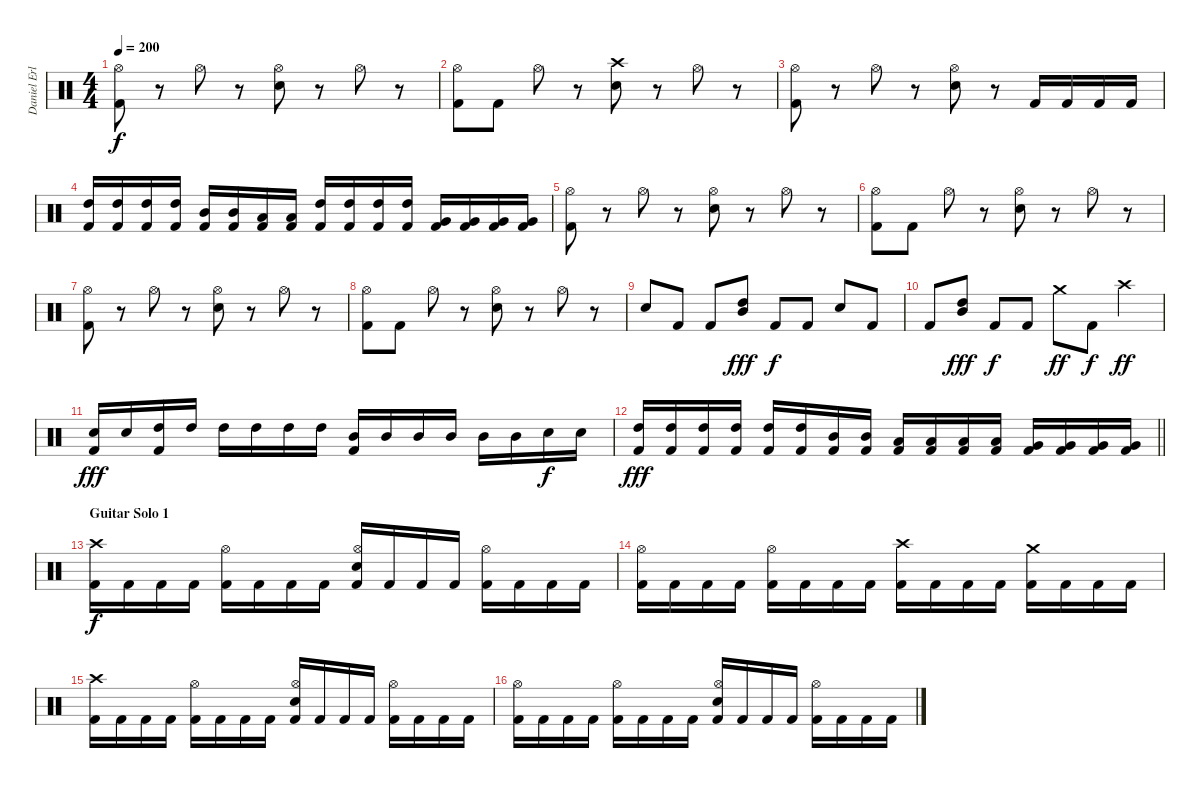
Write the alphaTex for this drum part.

\track ("Daniel Erlandsson" "Daniel Erl") {instrument percussion}
\staff {score}
\articulation defaults
\ts (4 4)
\tempo 200
\clef neutral
\ks c
("Kick (hit) 2" "Hi-Hat (open)").8{dy f} r.8 "Hi-Hat (open)".8 r.8 ("Snare (hit) 2" "Hi-Hat (open)").8 r.8 "Hi-Hat (open)".8 r.8 |
("Kick (hit) 2" "Hi-Hat (open)").8 "Kick (hit) 2".8 "Hi-Hat (open)".8 r.8 ("Snare (hit) 2" "Crash high (hit)").8 r.8 "Hi-Hat (open)".8 r.8 |
("Kick (hit) 2" "Hi-Hat (open)").8 r.8 "Hi-Hat (open)".8 r.8 ("Snare (hit) 2" "Hi-Hat (open)").8 r.8 "Kick (hit) 2".16 "Kick (hit) 2".16 "Kick (hit) 2".16 "Kick (hit) 2".16 |
("Kick (hit) 2" "High Tom (hit)").16 ("Kick (hit) 2" "High Tom (hit)").16 ("Kick (hit) 2" "High Tom (hit)").16 ("Kick (hit) 2" "High Tom (hit)").16 ("Kick (hit) 2" "Mid Tom (hit)").16 ("Kick (hit) 2" "Mid Tom (hit)").16 ("Kick (hit) 2" "Low Tom (hit)").16 ("Kick (hit) 2" "Low Tom (hit)").16 ("Kick (hit) 2" "High Tom (hit)").16 ("Kick (hit) 2" "High Tom (hit)").16 ("Kick (hit) 2" "High Tom (hit)").16 ("Kick (hit) 2" "High Tom (hit)").16 ("Kick (hit) 2" "Very Low Tom (hit)").16 ("Kick (hit) 2" "Very Low Tom (hit)").16 ("Kick (hit) 2" "Very Low Tom (hit)").16 ("Kick (hit) 2" "Very Low Tom (hit)").16 |
("Kick (hit) 2" "Hi-Hat (open)").8 r.8 "Hi-Hat (open)".8 r.8 ("Snare (hit) 2" "Hi-Hat (open)").8 r.8 "Hi-Hat (open)".8 r.8 |
("Kick (hit) 2" "Hi-Hat (open)").8 "Kick (hit) 2".8 "Hi-Hat (open)".8 r.8 ("Snare (hit) 2" "Hi-Hat (open)").8 r.8 "Hi-Hat (open)".8 r.8 |
("Kick (hit) 2" "Hi-Hat (open)").8 r.8 "Hi-Hat (open)".8 r.8 ("Snare (hit) 2" "Hi-Hat (open)").8 r.8 "Hi-Hat (open)".8 r.8 |
("Kick (hit) 2" "Hi-Hat (open)").8 "Kick (hit) 2".8 "Hi-Hat (open)".8 r.8 ("Snare (hit) 2" "Hi-Hat (open)").8 r.8 "Hi-Hat (open)".8 r.8 |
"Snare (hit) 2".8 "Kick (hit) 2".8 "Kick (hit) 2".8 ("High Tom (hit)" "Mid Tom (hit)").8{dy fff} "Kick (hit) 2".8{dy f} "Kick (hit) 2".8 "Snare (hit) 2".8 "Kick (hit) 2".8 |
"Kick (hit) 2".8 ("High Tom (hit)" "Mid Tom (hit)").8{dy fff} "Kick (hit) 2".8{dy f} "Kick (hit) 2".8 "Crash medium (hit)".8{dy ff} "Kick (hit) 2".8{dy f} "Crash high (hit)".4{dy ff} |
("Kick (hit) 2" "Snare (hit) 2").16{dy fff} "Snare (hit) 2".16 ("Kick (hit) 2" "High Tom (hit)").16 "High Tom (hit)".16 "High Tom (hit)".16 "High Tom (hit)".16 "High Tom (hit)".16 "High Tom (hit)".16 ("Kick (hit) 2" "Mid Tom (hit)").16 "Mid Tom (hit)".16 "Mid Tom (hit)".16 "Mid Tom (hit)".16 "Mid Tom (hit)".16 "Mid Tom (hit)".16 "Snare (hit) 2".16{dy f} "Snare (hit) 2".16 |
\barLineRight lightlight
("Kick (hit) 2" "High Tom (hit)").16{dy fff} ("Kick (hit) 2" "High Tom (hit)").16 ("Kick (hit) 2" "High Tom (hit)").16 ("Kick (hit) 2" "High Tom (hit)").16 ("Kick (hit) 2" "High Tom (hit)").16 ("Kick (hit) 2" "High Tom (hit)").16 ("Kick (hit) 2" "Mid Tom (hit)").16 ("Kick (hit) 2" "Mid Tom (hit)").16 ("Kick (hit) 2" "Low Tom (hit)").16 ("Kick (hit) 2" "Low Tom (hit)").16 ("Kick (hit) 2" "Low Tom (hit)").16 ("Kick (hit) 2" "Low Tom (hit)").16 ("Kick (hit) 2" "Very Low Tom (hit)").16 ("Kick (hit) 2" "Very Low Tom (hit)").16 ("Kick (hit) 2" "Very Low Tom (hit)").16 ("Kick (hit) 2" "Very Low Tom (hit)").16 |
\section ("" "Guitar Solo 1")
("Kick (hit) 2" "Crash high (hit)").16{dy f} "Kick (hit) 2".16 "Kick (hit) 2".16 "Kick (hit) 2".16 ("Kick (hit) 2" "Hi-Hat (open)").16 "Kick (hit) 2".16 "Kick (hit) 2".16 "Kick (hit) 2".16 ("Kick (hit) 2" "Snare (hit) 2" "Hi-Hat (open)").16 "Kick (hit) 2".16 "Kick (hit) 2".16 "Kick (hit) 2".16 ("Kick (hit) 2" "Hi-Hat (open)").16 "Kick (hit) 2".16 "Kick (hit) 2".16 "Kick (hit) 2".16 |
("Kick (hit) 2" "Hi-Hat (open)").16 "Kick (hit) 2".16 "Kick (hit) 2".16 "Kick (hit) 2".16 ("Kick (hit) 2" "Hi-Hat (open)").16 "Kick (hit) 2".16 "Kick (hit) 2".16 "Kick (hit) 2".16 ("Kick (hit) 2" "Crash high (hit)").16 "Kick (hit) 2".16 "Kick (hit) 2".16 "Kick (hit) 2".16 ("Kick (hit) 2" "Crash medium (hit)").16 "Kick (hit) 2".16 "Kick (hit) 2".16 "Kick (hit) 2".16 |
("Kick (hit) 2" "Crash high (hit)").16 "Kick (hit) 2".16 "Kick (hit) 2".16 "Kick (hit) 2".16 ("Kick (hit) 2" "Hi-Hat (open)").16 "Kick (hit) 2".16 "Kick (hit) 2".16 "Kick (hit) 2".16 ("Kick (hit) 2" "Snare (hit) 2" "Hi-Hat (open)").16 "Kick (hit) 2".16 "Kick (hit) 2".16 "Kick (hit) 2".16 ("Kick (hit) 2" "Hi-Hat (open)").16 "Kick (hit) 2".16 "Kick (hit) 2".16 "Kick (hit) 2".16 |
("Kick (hit) 2" "Hi-Hat (open)").16 "Kick (hit) 2".16 "Kick (hit) 2".16 "Kick (hit) 2".16 ("Kick (hit) 2" "Hi-Hat (open)").16 "Kick (hit) 2".16 "Kick (hit) 2".16 "Kick (hit) 2".16 ("Kick (hit) 2" "Snare (hit) 2" "Hi-Hat (open)").16 "Kick (hit) 2".16 "Kick (hit) 2".16 "Kick (hit) 2".16 ("Kick (hit) 2" "Hi-Hat (open)").16 "Kick (hit) 2".16 "Kick (hit) 2".16 "Kick (hit) 2".16
